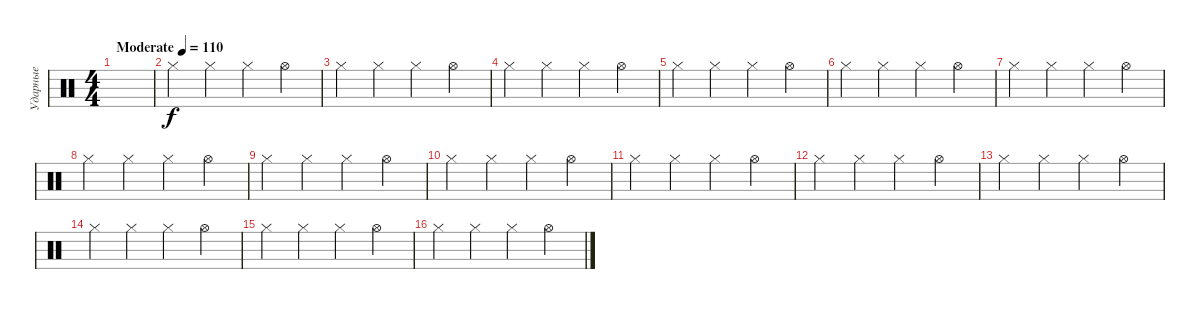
\track ("Ударные" "Ударные") {instrument percussion}
\staff {score}
\articulation defaults
\ts (4 4)
\tempo (110 "Moderate")
\clef neutral
\ks c
|
"Hi-Hat (closed)".4 "Hi-Hat (closed)".4 "Hi-Hat (closed)".4 "Hi-Hat (open)".4 |
"Hi-Hat (closed)".4 "Hi-Hat (closed)".4 "Hi-Hat (closed)".4 "Hi-Hat (open)".4 |
"Hi-Hat (closed)".4 "Hi-Hat (closed)".4 "Hi-Hat (closed)".4 "Hi-Hat (open)".4 |
"Hi-Hat (closed)".4 "Hi-Hat (closed)".4 "Hi-Hat (closed)".4 "Hi-Hat (open)".4 |
"Hi-Hat (closed)".4 "Hi-Hat (closed)".4 "Hi-Hat (closed)".4 "Hi-Hat (open)".4 |
"Hi-Hat (closed)".4 "Hi-Hat (closed)".4 "Hi-Hat (closed)".4 "Hi-Hat (open)".4 |
"Hi-Hat (closed)".4 "Hi-Hat (closed)".4 "Hi-Hat (closed)".4 "Hi-Hat (open)".4 |
"Hi-Hat (closed)".4 "Hi-Hat (closed)".4 "Hi-Hat (closed)".4 "Hi-Hat (open)".4 |
"Hi-Hat (closed)".4 "Hi-Hat (closed)".4 "Hi-Hat (closed)".4 "Hi-Hat (open)".4 |
"Hi-Hat (closed)".4 "Hi-Hat (closed)".4 "Hi-Hat (closed)".4 "Hi-Hat (open)".4 |
"Hi-Hat (closed)".4 "Hi-Hat (closed)".4 "Hi-Hat (closed)".4 "Hi-Hat (open)".4 |
"Hi-Hat (closed)".4 "Hi-Hat (closed)".4 "Hi-Hat (closed)".4 "Hi-Hat (open)".4 |
"Hi-Hat (closed)".4 "Hi-Hat (closed)".4 "Hi-Hat (closed)".4 "Hi-Hat (open)".4 |
"Hi-Hat (closed)".4 "Hi-Hat (closed)".4 "Hi-Hat (closed)".4 "Hi-Hat (open)".4 |
"Hi-Hat (closed)".4 "Hi-Hat (closed)".4 "Hi-Hat (closed)".4 "Hi-Hat (open)".4
